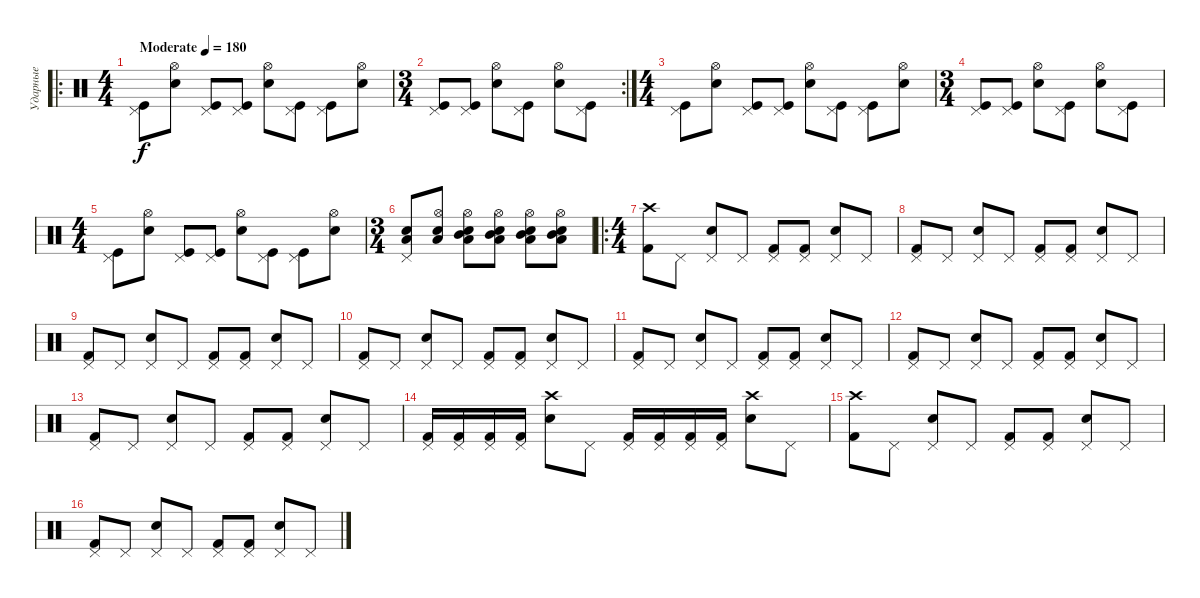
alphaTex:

\track ("Ударные" "Ударные") {instrument percussion}
\staff {score}
\articulation defaults
\ro
\ts (4 4)
\tempo (180 "Moderate")
\clef neutral
\ks c
("Kick (hit)" "Pedal Hi-Hat (hit)").8{dy f} ("Electric Snare (hit)" "Hi-Hat (open)").8 ("Kick (hit)" "Pedal Hi-Hat (hit)").8 ("Kick (hit)" "Pedal Hi-Hat (hit)").8 ("Electric Snare (hit)" "Hi-Hat (open)").8 ("Kick (hit)" "Pedal Hi-Hat (hit)").8 ("Kick (hit)" "Pedal Hi-Hat (hit)").8 ("Electric Snare (hit)" "Hi-Hat (open)").8 |
\rc 2
\ts (3 4)
("Kick (hit)" "Pedal Hi-Hat (hit)").8 ("Kick (hit)" "Pedal Hi-Hat (hit)").8 ("Electric Snare (hit)" "Hi-Hat (open)").8 ("Kick (hit)" "Pedal Hi-Hat (hit)").8 ("Electric Snare (hit)" "Hi-Hat (open)").8 ("Kick (hit)" "Pedal Hi-Hat (hit)").8 |
\ts (4 4)
("Kick (hit)" "Pedal Hi-Hat (hit)").8 ("Electric Snare (hit)" "Hi-Hat (open)").8 ("Kick (hit)" "Pedal Hi-Hat (hit)").8 ("Kick (hit)" "Pedal Hi-Hat (hit)").8 ("Electric Snare (hit)" "Hi-Hat (open)").8 ("Kick (hit)" "Pedal Hi-Hat (hit)").8 ("Kick (hit)" "Pedal Hi-Hat (hit)").8 ("Electric Snare (hit)" "Hi-Hat (open)").8 |
\ts (3 4)
("Kick (hit)" "Pedal Hi-Hat (hit)").8 ("Kick (hit)" "Pedal Hi-Hat (hit)").8 ("Electric Snare (hit)" "Hi-Hat (open)").8 ("Kick (hit)" "Pedal Hi-Hat (hit)").8 ("Electric Snare (hit)" "Hi-Hat (open)").8 ("Kick (hit)" "Pedal Hi-Hat (hit)").8 |
\ts (4 4)
("Kick (hit)" "Pedal Hi-Hat (hit)").8 ("Electric Snare (hit)" "Hi-Hat (open)").8 ("Kick (hit)" "Pedal Hi-Hat (hit)").8 ("Kick (hit)" "Pedal Hi-Hat (hit)").8 ("Electric Snare (hit)" "Hi-Hat (open)").8 ("Kick (hit)" "Pedal Hi-Hat (hit)").8 ("Kick (hit)" "Pedal Hi-Hat (hit)").8 ("Electric Snare (hit)" "Hi-Hat (open)").8 |
\ts (3 4)
("Electric Snare (hit)" "Pedal Hi-Hat (hit)" "Low Tom (hit)").8 ("Electric Snare (hit)" "Hi-Hat (open)" "Low Tom (hit)").8 ("Electric Snare (hit)" "Hi-Hat (open)" "Low Tom (hit)" "Mid Tom (hit)").8 ("Electric Snare (hit)" "Hi-Hat (open)" "Low Tom (hit)" "Mid Tom (hit)").8 ("Electric Snare (hit)" "Hi-Hat (open)" "Low Tom (hit)" "Mid Tom (hit)").8 ("Electric Snare (hit)" "Hi-Hat (open)" "Low Tom (hit)" "Mid Tom (hit)").8 |
\ro
\ts (4 4)
("Kick (hit) 2" "Crash high (hit)").8 "Pedal Hi-Hat (hit)".8 ("Electric Snare (hit)" "Pedal Hi-Hat (hit)").8 "Pedal Hi-Hat (hit)".8 ("Pedal Hi-Hat (hit)" "Kick (hit) 2").8 ("Pedal Hi-Hat (hit)" "Kick (hit) 2").8 ("Electric Snare (hit)" "Pedal Hi-Hat (hit)").8 "Pedal Hi-Hat (hit)".8 |
("Kick (hit) 2" "Pedal Hi-Hat (hit)").8 "Pedal Hi-Hat (hit)".8 ("Electric Snare (hit)" "Pedal Hi-Hat (hit)").8 "Pedal Hi-Hat (hit)".8 ("Pedal Hi-Hat (hit)" "Kick (hit) 2").8 ("Pedal Hi-Hat (hit)" "Kick (hit) 2").8 ("Electric Snare (hit)" "Pedal Hi-Hat (hit)").8 "Pedal Hi-Hat (hit)".8 |
("Kick (hit) 2" "Pedal Hi-Hat (hit)").8 "Pedal Hi-Hat (hit)".8 ("Electric Snare (hit)" "Pedal Hi-Hat (hit)").8 "Pedal Hi-Hat (hit)".8 ("Pedal Hi-Hat (hit)" "Kick (hit) 2").8 ("Pedal Hi-Hat (hit)" "Kick (hit) 2").8 ("Electric Snare (hit)" "Pedal Hi-Hat (hit)").8 "Pedal Hi-Hat (hit)".8 |
("Kick (hit) 2" "Pedal Hi-Hat (hit)").8 "Pedal Hi-Hat (hit)".8 ("Electric Snare (hit)" "Pedal Hi-Hat (hit)").8 "Pedal Hi-Hat (hit)".8 ("Pedal Hi-Hat (hit)" "Kick (hit) 2").8 ("Pedal Hi-Hat (hit)" "Kick (hit) 2").8 ("Electric Snare (hit)" "Pedal Hi-Hat (hit)").8 "Pedal Hi-Hat (hit)".8 |
("Kick (hit) 2" "Pedal Hi-Hat (hit)").8 "Pedal Hi-Hat (hit)".8 ("Electric Snare (hit)" "Pedal Hi-Hat (hit)").8 "Pedal Hi-Hat (hit)".8 ("Pedal Hi-Hat (hit)" "Kick (hit) 2").8 ("Pedal Hi-Hat (hit)" "Kick (hit) 2").8 ("Electric Snare (hit)" "Pedal Hi-Hat (hit)").8 "Pedal Hi-Hat (hit)".8 |
("Kick (hit) 2" "Pedal Hi-Hat (hit)").8 "Pedal Hi-Hat (hit)".8 ("Electric Snare (hit)" "Pedal Hi-Hat (hit)").8 "Pedal Hi-Hat (hit)".8 ("Pedal Hi-Hat (hit)" "Kick (hit) 2").8 ("Pedal Hi-Hat (hit)" "Kick (hit) 2").8 ("Electric Snare (hit)" "Pedal Hi-Hat (hit)").8 "Pedal Hi-Hat (hit)".8 |
("Kick (hit) 2" "Pedal Hi-Hat (hit)").8 "Pedal Hi-Hat (hit)".8 ("Electric Snare (hit)" "Pedal Hi-Hat (hit)").8 "Pedal Hi-Hat (hit)".8 ("Pedal Hi-Hat (hit)" "Kick (hit) 2").8 ("Pedal Hi-Hat (hit)" "Kick (hit) 2").8 ("Electric Snare (hit)" "Pedal Hi-Hat (hit)").8 "Pedal Hi-Hat (hit)".8 |
("Kick (hit) 2" "Pedal Hi-Hat (hit)").16 ("Kick (hit) 2" "Pedal Hi-Hat (hit)").16 ("Kick (hit) 2" "Pedal Hi-Hat (hit)").16 ("Kick (hit) 2" "Pedal Hi-Hat (hit)").16 ("Electric Snare (hit)" "Crash high (hit)").8 "Pedal Hi-Hat (hit)".8 ("Kick (hit) 2" "Pedal Hi-Hat (hit)").16 ("Kick (hit) 2" "Pedal Hi-Hat (hit)").16 ("Kick (hit) 2" "Pedal Hi-Hat (hit)").16 ("Kick (hit) 2" "Pedal Hi-Hat (hit)").16 ("Electric Snare (hit)" "Crash high (hit)").8 "Pedal Hi-Hat (hit)".8 |
("Kick (hit) 2" "Crash high (hit)").8 "Pedal Hi-Hat (hit)".8 ("Electric Snare (hit)" "Pedal Hi-Hat (hit)").8 "Pedal Hi-Hat (hit)".8 ("Pedal Hi-Hat (hit)" "Kick (hit) 2").8 ("Pedal Hi-Hat (hit)" "Kick (hit) 2").8 ("Electric Snare (hit)" "Pedal Hi-Hat (hit)").8 "Pedal Hi-Hat (hit)".8 |
("Kick (hit) 2" "Pedal Hi-Hat (hit)").8 "Pedal Hi-Hat (hit)".8 ("Electric Snare (hit)" "Pedal Hi-Hat (hit)").8 "Pedal Hi-Hat (hit)".8 ("Pedal Hi-Hat (hit)" "Kick (hit) 2").8 ("Pedal Hi-Hat (hit)" "Kick (hit) 2").8 ("Electric Snare (hit)" "Pedal Hi-Hat (hit)").8 "Pedal Hi-Hat (hit)".8
